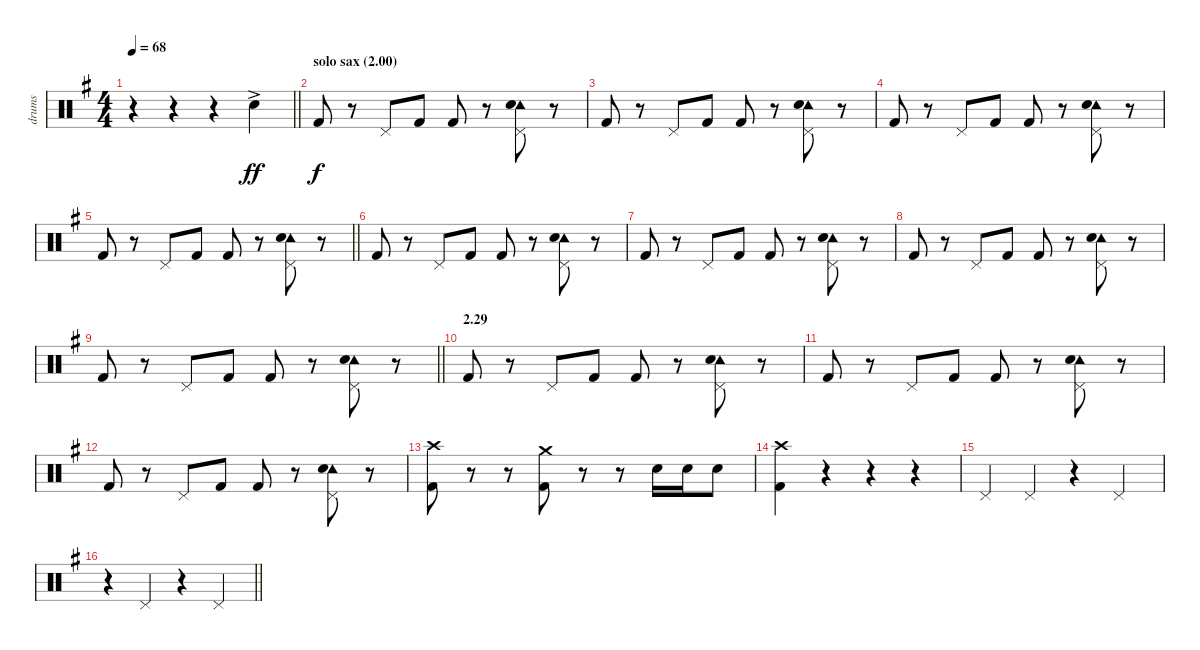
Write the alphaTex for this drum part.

\track ("drums" "drums") {instrument percussion}
\staff {score}
\articulation defaults
\ts (4 4)
\tempo 68
\clef neutral
\barLineRight lightlight
\ks g
r.4{dy ff} r.4 r.4 "Snare (hit) 2"{ac}.4 |
\section ("" "solo sax (2.00)")
"Kick (hit) 2".8{dy f} r.8 "Pedal Hi-Hat (hit)".8 "Kick (hit) 2".8 "Kick (hit) 2".8 r.8 ("Pedal Hi-Hat (hit)" "Tambourine (hit)" "Snare (hit) 2").8 r.8 |
"Kick (hit) 2".8 r.8 "Pedal Hi-Hat (hit)".8 "Kick (hit) 2".8 "Kick (hit) 2".8 r.8 ("Pedal Hi-Hat (hit)" "Tambourine (hit)" "Snare (hit) 2").8 r.8 |
"Kick (hit) 2".8 r.8 "Pedal Hi-Hat (hit)".8 "Kick (hit) 2".8 "Kick (hit) 2".8 r.8 ("Pedal Hi-Hat (hit)" "Tambourine (hit)" "Snare (hit) 2").8 r.8 |
\barLineRight lightlight "Kick (hit) 2".8
r.8 "Pedal Hi-Hat (hit)".8 "Kick (hit) 2".8 "Kick (hit) 2".8 r.8 ("Pedal Hi-Hat (hit)" "Tambourine (hit)" "Snare (hit) 2").8 r.8 |
"Kick (hit) 2".8 r.8 "Pedal Hi-Hat (hit)".8 "Kick (hit) 2".8 "Kick (hit) 2".8 r.8 ("Pedal Hi-Hat (hit)" "Tambourine (hit)" "Snare (hit) 2").8 r.8 |
"Kick (hit) 2".8 r.8 "Pedal Hi-Hat (hit)".8 "Kick (hit) 2".8 "Kick (hit) 2".8 r.8 ("Pedal Hi-Hat (hit)" "Tambourine (hit)" "Snare (hit) 2").8 r.8 |
"Kick (hit) 2".8 r.8 "Pedal Hi-Hat (hit)".8 "Kick (hit) 2".8 "Kick (hit) 2".8 r.8 ("Pedal Hi-Hat (hit)" "Tambourine (hit)" "Snare (hit) 2").8 r.8 |
\barLineRight lightlight "Kick (hit) 2".8
r.8 "Pedal Hi-Hat (hit)".8 "Kick (hit) 2".8 "Kick (hit) 2".8 r.8 ("Pedal Hi-Hat (hit)" "Tambourine (hit)" "Snare (hit) 2").8 r.8 |
\section ("" "2.29")
"Kick (hit) 2".8 r.8 "Pedal Hi-Hat (hit)".8 "Kick (hit) 2".8 "Kick (hit) 2".8 r.8 ("Pedal Hi-Hat (hit)" "Tambourine (hit)" "Snare (hit) 2").8 r.8 |
"Kick (hit) 2".8 r.8 "Pedal Hi-Hat (hit)".8 "Kick (hit) 2".8 "Kick (hit) 2".8 r.8 ("Pedal Hi-Hat (hit)" "Tambourine (hit)" "Snare (hit) 2").8 r.8 |
"Kick (hit) 2".8 r.8 "Pedal Hi-Hat (hit)".8 "Kick (hit) 2".8 "Kick (hit) 2".8 r.8 ("Pedal Hi-Hat (hit)" "Tambourine (hit)" "Snare (hit) 2").8 r.8 |
("Crash high (hit)" "Kick (hit) 2").8 r.8 r.8 ("Crash medium (hit)" "Kick (hit) 2").8 r.8 r.8 "Electric Snare (hit)".16 "Electric Snare (hit)".16 "Electric Snare (hit)".8 |
("Crash high (hit)" "Kick (hit) 2").4 r.4 r.4 r.4 |
"Pedal Hi-Hat (hit)".4 "Pedal Hi-Hat (hit)".4 r.4 "Pedal Hi-Hat (hit)".4 |
\barLineRight lightlight
r.4 "Pedal Hi-Hat (hit)".4 r.4 "Pedal Hi-Hat (hit)".4
